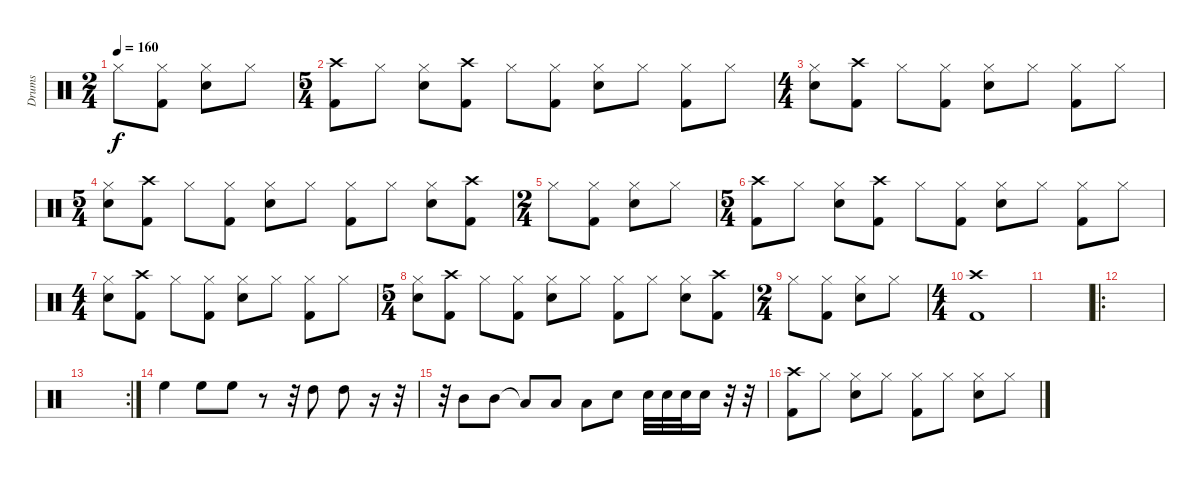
\track ("Drums" "Drums") {instrument percussion}
\staff {score}
\articulation defaults
\ts (2 4)
\tempo 160
\clef neutral
\ks c "Hi-Hat (closed)".8{dy f}
("Hi-Hat (closed)" "Kick (hit) 2").8 ("Hi-Hat (closed)" "Electric Snare (hit)").8 "Hi-Hat (closed)".8 |
\ts (5 4)
("Crash high (hit)" "Kick (hit) 2").8 "Hi-Hat (closed)".8 ("Hi-Hat (closed)" "Electric Snare (hit)").8 ("Crash high (hit)" "Kick (hit) 2").8 "Hi-Hat (closed)".8 ("Hi-Hat (closed)" "Kick (hit) 2").8 ("Hi-Hat (closed)" "Electric Snare (hit)").8 "Hi-Hat (closed)".8 ("Hi-Hat (closed)" "Kick (hit) 2").8 "Hi-Hat (closed)".8 |
\ts (4 4)
("Hi-Hat (closed)" "Electric Snare (hit)").8 ("Crash high (hit)" "Kick (hit) 2").8 "Hi-Hat (closed)".8 ("Hi-Hat (closed)" "Kick (hit) 2").8 ("Hi-Hat (closed)" "Electric Snare (hit)").8 "Hi-Hat (closed)".8 ("Hi-Hat (closed)" "Kick (hit) 2").8 "Hi-Hat (closed)".8 |
\ts (5 4)
("Hi-Hat (closed)" "Electric Snare (hit)").8 ("Crash high (hit)" "Kick (hit) 2").8 "Hi-Hat (closed)".8 ("Hi-Hat (closed)" "Kick (hit) 2").8 ("Hi-Hat (closed)" "Electric Snare (hit)").8 "Hi-Hat (closed)".8 ("Hi-Hat (closed)" "Kick (hit) 2").8 "Hi-Hat (closed)".8 ("Hi-Hat (closed)" "Electric Snare (hit)").8 ("Crash high (hit)" "Kick (hit) 2").8 |
\ts (2 4)
"Hi-Hat (closed)".8 ("Hi-Hat (closed)" "Kick (hit) 2").8 ("Hi-Hat (closed)" "Electric Snare (hit)").8 "Hi-Hat (closed)".8 |
\ts (5 4)
("Crash high (hit)" "Kick (hit) 2").8 "Hi-Hat (closed)".8 ("Hi-Hat (closed)" "Electric Snare (hit)").8 ("Crash high (hit)" "Kick (hit) 2").8 "Hi-Hat (closed)".8 ("Hi-Hat (closed)" "Kick (hit) 2").8 ("Hi-Hat (closed)" "Electric Snare (hit)").8 "Hi-Hat (closed)".8 ("Hi-Hat (closed)" "Kick (hit) 2").8 "Hi-Hat (closed)".8 |
\ts (4 4)
("Hi-Hat (closed)" "Electric Snare (hit)").8 ("Crash high (hit)" "Kick (hit) 2").8 "Hi-Hat (closed)".8 ("Hi-Hat (closed)" "Kick (hit) 2").8 ("Hi-Hat (closed)" "Electric Snare (hit)").8 "Hi-Hat (closed)".8 ("Hi-Hat (closed)" "Kick (hit) 2").8 "Hi-Hat (closed)".8 |
\ts (5 4)
("Hi-Hat (closed)" "Electric Snare (hit)").8 ("Crash high (hit)" "Kick (hit) 2").8 "Hi-Hat (closed)".8 ("Hi-Hat (closed)" "Kick (hit) 2").8 ("Hi-Hat (closed)" "Electric Snare (hit)").8 "Hi-Hat (closed)".8 ("Hi-Hat (closed)" "Kick (hit) 2").8 "Hi-Hat (closed)".8 ("Hi-Hat (closed)" "Electric Snare (hit)").8 ("Crash high (hit)" "Kick (hit) 2").8 |
\ts (2 4)
"Hi-Hat (closed)".8 ("Hi-Hat (closed)" "Kick (hit) 2").8 ("Hi-Hat (closed)" "Electric Snare (hit)").8 "Hi-Hat (closed)".8 |
\ts (4 4)
("Crash high (hit)" "Kick (hit) 2").1 |
|
\ro
|
\rc 2
|
"High Floor Tom (hit)".4{volume 13} "High Floor Tom (hit)".8 "High Floor Tom (hit)".8 r.8 r.32 "High Tom (hit)".8 "High Tom (hit)".8 r.16 r.32 |
r.32 "Mid Tom (hit)".8 "Mid Tom (hit)".8 "Low Tom (hit)"{t}.8 "Low Tom (hit)".8 "Low Tom (hit)".8 "Electric Snare (hit)".8 "Electric Snare (hit)".32 "Electric Snare (hit)".32 "Electric Snare (hit)".32 "Electric Snare (hit)".16 r.32 r.32 |
("Crash high (hit)" "Kick (hit) 2").8{volume 12} "Hi-Hat (closed)".8 ("Hi-Hat (closed)" "Electric Snare (hit)").8 "Hi-Hat (closed)".8 ("Hi-Hat (closed)" "Kick (hit) 2").8 "Hi-Hat (closed)".8 ("Hi-Hat (closed)" "Electric Snare (hit)").8 "Hi-Hat (closed)".8
